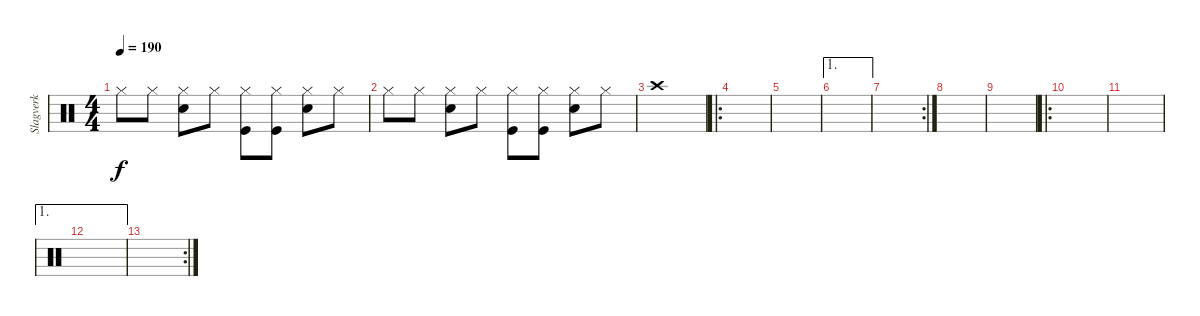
\track ("Slagverk" "Slagverk") {instrument percussion}
\staff {score}
\articulation defaults
\ts (4 4)
\tempo 190
\clef neutral
\ks c "Hi-Hat (closed)".8{dy f} "Hi-Hat (closed)".8
("Snare (hit) 2" "Hi-Hat (closed)").8 "Hi-Hat (closed)".8 ("Kick (hit)" "Hi-Hat (closed)").8 ("Kick (hit)" "Hi-Hat (closed)").8 ("Snare (hit) 2" "Hi-Hat (closed)").8 "Hi-Hat (closed)".8 |
"Hi-Hat (closed)".8 "Hi-Hat (closed)".8 ("Snare (hit) 2" "Hi-Hat (closed)").8 "Hi-Hat (closed)".8 ("Kick (hit)" "Hi-Hat (closed)").8 ("Kick (hit)" "Hi-Hat (closed)").8 ("Snare (hit) 2" "Hi-Hat (closed)").8 "Hi-Hat (closed)".8 |
"Crash high (hit)".1 |
\ro
|
|
\ae 1
|
\rc 2
|
|
|
\ro
|
|
\ae 1
|
\rc 2
